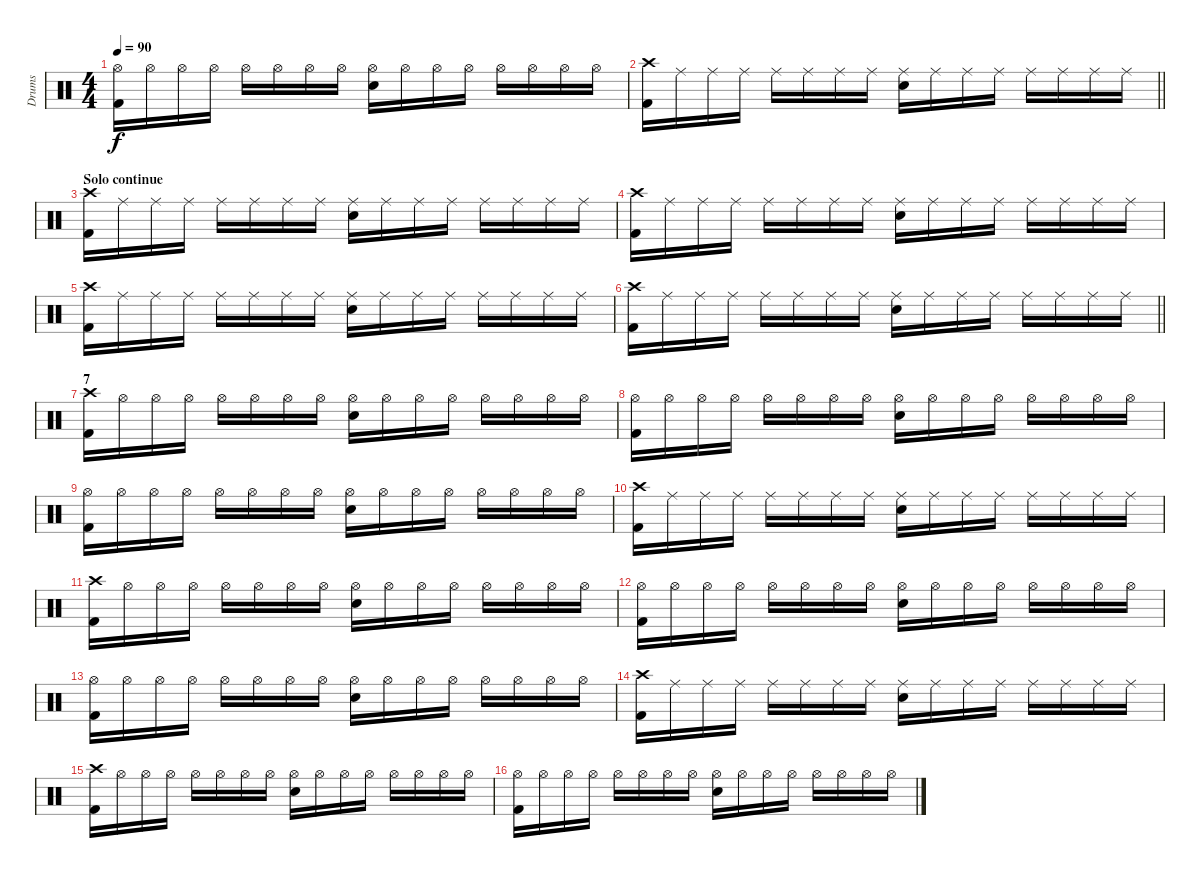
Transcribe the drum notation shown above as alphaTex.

\track ("Drums" "Drums") {instrument percussion}
\staff {score}
\articulation defaults
\ts (4 4)
\tempo 90
\clef neutral
\ks c
("Hi-Hat (open)" "Kick (hit) 2").16{dy f} "Hi-Hat (open)".16 "Hi-Hat (open)".16 "Hi-Hat (open)".16 "Hi-Hat (open)".16 "Hi-Hat (open)".16 "Hi-Hat (open)".16 "Hi-Hat (open)".16 ("Hi-Hat (open)" "Snare (hit) 2").16 "Hi-Hat (open)".16 "Hi-Hat (open)".16 "Hi-Hat (open)".16 "Hi-Hat (open)".16 "Hi-Hat (open)".16 "Hi-Hat (open)".16 "Hi-Hat (open)".16 |
\barLineRight lightlight
("Crash high (hit)" "Kick (hit) 2").16 "Ride (middle)".16 "Ride (middle)".16 "Ride (middle)".16 "Ride (middle)".16 "Ride (middle)".16 "Ride (middle)".16 "Ride (middle)".16 ("Ride (middle)" "Snare (hit) 2").16 "Ride (middle)".16 "Ride (middle)".16 "Ride (middle)".16 "Ride (middle)".16 "Ride (middle)".16 "Ride (middle)".16 "Ride (middle)".16 |
\section ("" "Solo continue")
("Crash high (hit)" "Kick (hit) 2").16 "Ride (middle)".16 "Ride (middle)".16 "Ride (middle)".16 "Ride (middle)".16 "Ride (middle)".16 "Ride (middle)".16 "Ride (middle)".16 ("Ride (middle)" "Snare (hit) 2").16 "Ride (middle)".16 "Ride (middle)".16 "Ride (middle)".16 "Ride (middle)".16 "Ride (middle)".16 "Ride (middle)".16 "Ride (middle)".16 |
("Crash high (hit)" "Kick (hit) 2").16 "Ride (middle)".16 "Ride (middle)".16 "Ride (middle)".16 "Ride (middle)".16 "Ride (middle)".16 "Ride (middle)".16 "Ride (middle)".16 ("Ride (middle)" "Snare (hit) 2").16 "Ride (middle)".16 "Ride (middle)".16 "Ride (middle)".16 "Ride (middle)".16 "Ride (middle)".16 "Ride (middle)".16 "Ride (middle)".16 |
("Crash high (hit)" "Kick (hit) 2").16 "Ride (middle)".16 "Ride (middle)".16 "Ride (middle)".16 "Ride (middle)".16 "Ride (middle)".16 "Ride (middle)".16 "Ride (middle)".16 ("Ride (middle)" "Snare (hit) 2").16 "Ride (middle)".16 "Ride (middle)".16 "Ride (middle)".16 "Ride (middle)".16 "Ride (middle)".16 "Ride (middle)".16 "Ride (middle)".16 |
\barLineRight lightlight
("Crash high (hit)" "Kick (hit) 2").16 "Ride (middle)".16 "Ride (middle)".16 "Ride (middle)".16 "Ride (middle)".16 "Ride (middle)".16 "Ride (middle)".16 "Ride (middle)".16 ("Ride (middle)" "Snare (hit) 2").16 "Ride (middle)".16 "Ride (middle)".16 "Ride (middle)".16 "Ride (middle)".16 "Ride (middle)".16 "Ride (middle)".16 "Ride (middle)".16 |
\section ("" "7")
("Crash high (hit)" "Kick (hit) 2").16 "Hi-Hat (open)".16 "Hi-Hat (open)".16 "Hi-Hat (open)".16 "Hi-Hat (open)".16 "Hi-Hat (open)".16 "Hi-Hat (open)".16 "Hi-Hat (open)".16 ("Hi-Hat (open)" "Snare (hit) 2").16 "Hi-Hat (open)".16 "Hi-Hat (open)".16 "Hi-Hat (open)".16 "Hi-Hat (open)".16 "Hi-Hat (open)".16 "Hi-Hat (open)".16 "Hi-Hat (open)".16 |
("Hi-Hat (open)" "Kick (hit) 2").16 "Hi-Hat (open)".16 "Hi-Hat (open)".16 "Hi-Hat (open)".16 "Hi-Hat (open)".16 "Hi-Hat (open)".16 "Hi-Hat (open)".16 "Hi-Hat (open)".16 ("Hi-Hat (open)" "Snare (hit) 2").16 "Hi-Hat (open)".16 "Hi-Hat (open)".16 "Hi-Hat (open)".16 "Hi-Hat (open)".16 "Hi-Hat (open)".16 "Hi-Hat (open)".16 "Hi-Hat (open)".16 |
("Hi-Hat (open)" "Kick (hit) 2").16 "Hi-Hat (open)".16 "Hi-Hat (open)".16 "Hi-Hat (open)".16 "Hi-Hat (open)".16 "Hi-Hat (open)".16 "Hi-Hat (open)".16 "Hi-Hat (open)".16 ("Hi-Hat (open)" "Snare (hit) 2").16 "Hi-Hat (open)".16 "Hi-Hat (open)".16 "Hi-Hat (open)".16 "Hi-Hat (open)".16 "Hi-Hat (open)".16 "Hi-Hat (open)".16 "Hi-Hat (open)".16 |
("Crash high (hit)" "Kick (hit) 2").16 "Ride (middle)".16 "Ride (middle)".16 "Ride (middle)".16 "Ride (middle)".16 "Ride (middle)".16 "Ride (middle)".16 "Ride (middle)".16 ("Ride (middle)" "Snare (hit) 2").16 "Ride (middle)".16 "Ride (middle)".16 "Ride (middle)".16 "Ride (middle)".16 "Ride (middle)".16 "Ride (middle)".16 "Ride (middle)".16 |
("Crash high (hit)" "Kick (hit) 2").16 "Hi-Hat (open)".16 "Hi-Hat (open)".16 "Hi-Hat (open)".16 "Hi-Hat (open)".16 "Hi-Hat (open)".16 "Hi-Hat (open)".16 "Hi-Hat (open)".16 ("Hi-Hat (open)" "Snare (hit) 2").16 "Hi-Hat (open)".16 "Hi-Hat (open)".16 "Hi-Hat (open)".16 "Hi-Hat (open)".16 "Hi-Hat (open)".16 "Hi-Hat (open)".16 "Hi-Hat (open)".16 |
("Hi-Hat (open)" "Kick (hit) 2").16 "Hi-Hat (open)".16 "Hi-Hat (open)".16 "Hi-Hat (open)".16 "Hi-Hat (open)".16 "Hi-Hat (open)".16 "Hi-Hat (open)".16 "Hi-Hat (open)".16 ("Hi-Hat (open)" "Snare (hit) 2").16 "Hi-Hat (open)".16 "Hi-Hat (open)".16 "Hi-Hat (open)".16 "Hi-Hat (open)".16 "Hi-Hat (open)".16 "Hi-Hat (open)".16 "Hi-Hat (open)".16 |
("Hi-Hat (open)" "Kick (hit) 2").16 "Hi-Hat (open)".16 "Hi-Hat (open)".16 "Hi-Hat (open)".16 "Hi-Hat (open)".16 "Hi-Hat (open)".16 "Hi-Hat (open)".16 "Hi-Hat (open)".16 ("Hi-Hat (open)" "Snare (hit) 2").16 "Hi-Hat (open)".16 "Hi-Hat (open)".16 "Hi-Hat (open)".16 "Hi-Hat (open)".16 "Hi-Hat (open)".16 "Hi-Hat (open)".16 "Hi-Hat (open)".16 |
("Crash high (hit)" "Kick (hit) 2").16 "Ride (middle)".16 "Ride (middle)".16 "Ride (middle)".16 "Ride (middle)".16 "Ride (middle)".16 "Ride (middle)".16 "Ride (middle)".16 ("Ride (middle)" "Snare (hit) 2").16 "Ride (middle)".16 "Ride (middle)".16 "Ride (middle)".16 "Ride (middle)".16 "Ride (middle)".16 "Ride (middle)".16 "Ride (middle)".16 |
("Crash high (hit)" "Kick (hit) 2").16 "Hi-Hat (open)".16 "Hi-Hat (open)".16 "Hi-Hat (open)".16 "Hi-Hat (open)".16 "Hi-Hat (open)".16 "Hi-Hat (open)".16 "Hi-Hat (open)".16 ("Hi-Hat (open)" "Snare (hit) 2").16 "Hi-Hat (open)".16 "Hi-Hat (open)".16 "Hi-Hat (open)".16 "Hi-Hat (open)".16 "Hi-Hat (open)".16 "Hi-Hat (open)".16 "Hi-Hat (open)".16 |
("Hi-Hat (open)" "Kick (hit) 2").16 "Hi-Hat (open)".16 "Hi-Hat (open)".16 "Hi-Hat (open)".16 "Hi-Hat (open)".16 "Hi-Hat (open)".16 "Hi-Hat (open)".16 "Hi-Hat (open)".16 ("Hi-Hat (open)" "Snare (hit) 2").16 "Hi-Hat (open)".16 "Hi-Hat (open)".16 "Hi-Hat (open)".16 "Hi-Hat (open)".16 "Hi-Hat (open)".16 "Hi-Hat (open)".16 "Hi-Hat (open)".16
